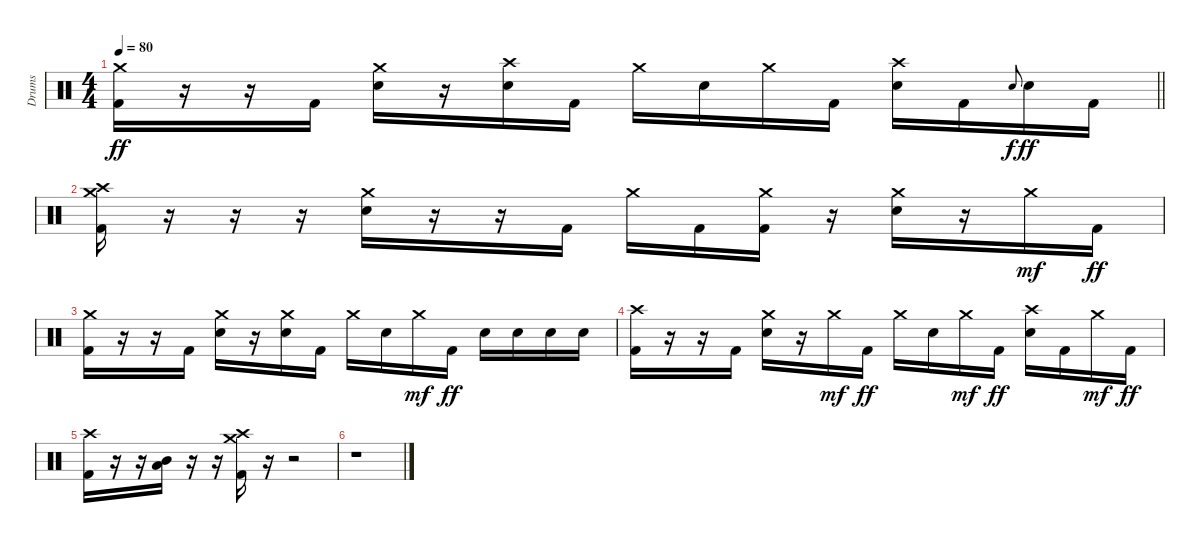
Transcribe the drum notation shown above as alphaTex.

\track ("Drums" "Drums") {instrument percussion}
\staff {score}
\articulation defaults
\ts (4 4)
\tempo 80
\clef neutral
\barLineRight lightlight
\ks c
("Crash medium (hit)" "Kick (hit) 2").16{dy ff} r.16 r.16 "Kick (hit) 2".16 ("Crash medium (hit)" "Electric Snare (hit)").16 r.16 ("Crash high (hit)" "Electric Snare (hit)").16 "Kick (hit) 2".16 "Crash medium (hit)".16 "Electric Snare (hit)".16 "Crash medium (hit)".16 "Kick (hit) 2".16 ("Crash high (hit)" "Electric Snare (hit)").16 "Kick (hit) 2".16 "Electric Snare (hit)".8{gr onbeat dy f} "Electric Snare (hit)".16{dy ff} "Kick (hit) 2".16 |
("Crash medium (hit)" "Crash high (hit)" "Kick (hit) 2").16 r.16 r.16 r.16 ("Crash medium (hit)" "Electric Snare (hit)").16 r.16 r.16 "Kick (hit) 2".16 "Crash medium (hit)".16 "Kick (hit) 2".16 ("Crash medium (hit)" "Kick (hit) 2").16 r.16 ("Crash medium (hit)" "Electric Snare (hit)").16 r.16 "Crash medium (hit)".16{dy mf} "Kick (hit) 2".16{dy ff} |
("Crash medium (hit)" "Kick (hit) 2").16 r.16 r.16 "Kick (hit) 2".16 ("Crash medium (hit)" "Electric Snare (hit)").16 r.16 ("Crash medium (hit)" "Electric Snare (hit)").16 "Kick (hit) 2".16 "Crash medium (hit)".16 "Electric Snare (hit)".16 "Crash medium (hit)".16{dy mf} "Kick (hit) 2".16{dy ff} "Electric Snare (hit)".16 "Electric Snare (hit)".16 "Electric Snare (hit)".16 "Electric Snare (hit)".16 |
("Crash high (hit)" "Kick (hit) 2").16 r.16 r.16 "Kick (hit) 2".16 ("Crash medium (hit)" "Electric Snare (hit)").16 r.16 "Crash medium (hit)".16{dy mf} "Kick (hit) 2".16{dy ff} "Crash medium (hit)".16 "Electric Snare (hit)".16 "Crash medium (hit)".16{dy mf} "Kick (hit) 2".16{dy ff} ("Crash high (hit)" "Electric Snare (hit)").16 "Kick (hit) 2".16 "Crash medium (hit)".16{dy mf} "Kick (hit) 2".16{dy ff} |
("Crash high (hit)" "Kick (hit) 2").16 r.16 r.16 ("Mid Tom (hit)" "Low Tom (hit)").16 r.16 r.16 ("Crash medium (hit)" "Crash high (hit)" "Kick (hit) 2").16 r.16 r.2 |
r.1
